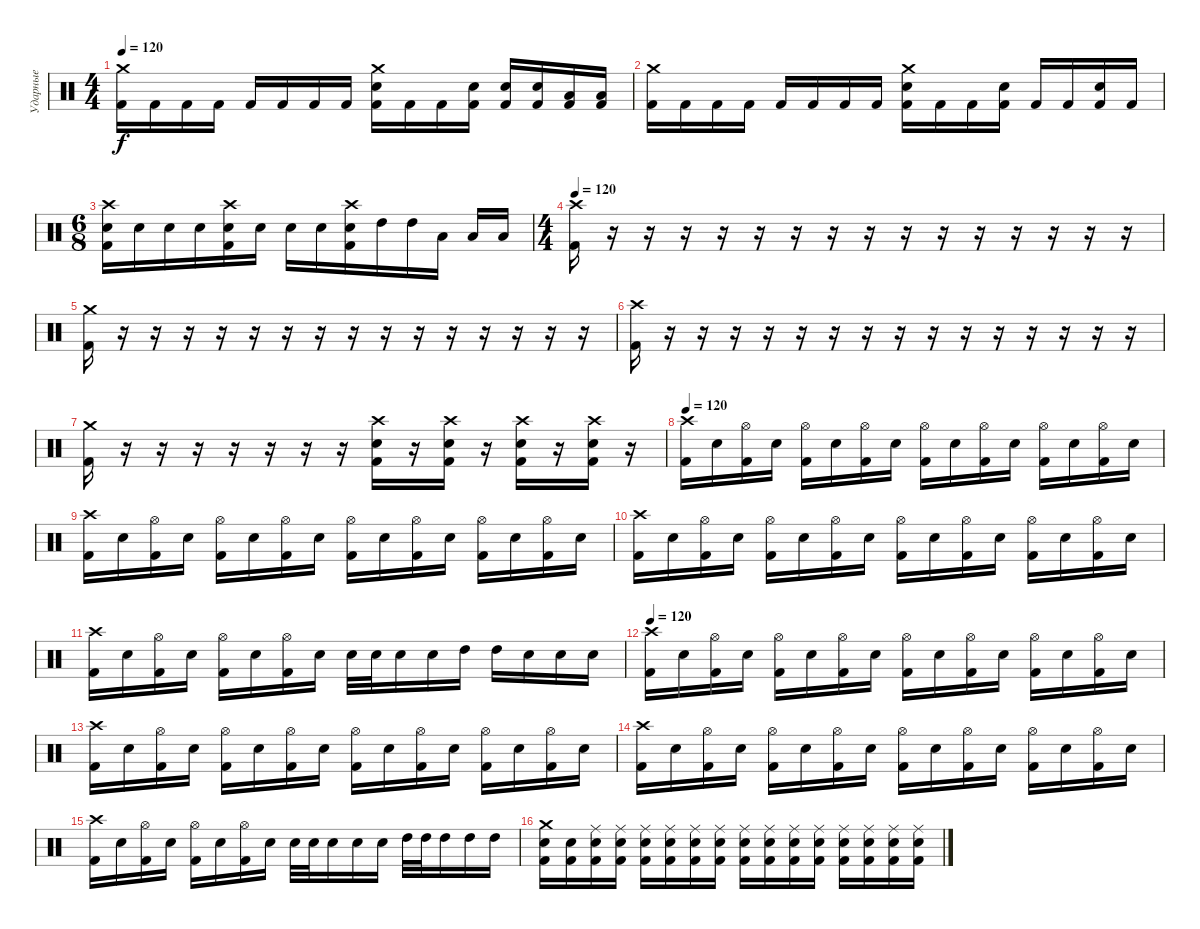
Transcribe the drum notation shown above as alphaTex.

\track ("Ударные" "Ударные") {instrument percussion}
\staff {score}
\articulation defaults
\ts (4 4)
\tempo 120
\clef neutral
\ks c
("Crash medium (hit)" "Kick (hit) 2").16{dy f} "Kick (hit) 2".16 "Kick (hit) 2".16 "Kick (hit) 2".16 "Kick (hit) 2".16 "Kick (hit) 2".16 "Kick (hit) 2".16 "Kick (hit) 2".16 ("Crash medium (hit)" "Electric Snare (hit)" "Kick (hit) 2").16 "Kick (hit) 2".16 "Kick (hit) 2".16 ("Electric Snare (hit)" "Kick (hit) 2").16 ("Electric Snare (hit)" "Kick (hit) 2").16 ("Electric Snare (hit)" "Kick (hit) 2").16 ("Low Tom (hit)" "Kick (hit) 2").16 ("Low Tom (hit)" "Kick (hit) 2").16 |
("Crash medium (hit)" "Kick (hit) 2").16 "Kick (hit) 2".16 "Kick (hit) 2".16 "Kick (hit) 2".16 "Kick (hit) 2".16 "Kick (hit) 2".16 "Kick (hit) 2".16 "Kick (hit) 2".16 ("Crash medium (hit)" "Electric Snare (hit)" "Kick (hit) 2").16 "Kick (hit) 2".16 "Kick (hit) 2".16 ("Electric Snare (hit)" "Kick (hit) 2").16 "Kick (hit) 2".16 "Kick (hit) 2".16 ("Electric Snare (hit)" "Kick (hit) 2").16 "Kick (hit) 2".16 |
\ts (6 8)
("Crash high (hit)" "Electric Snare (hit)" "Kick (hit) 2").16 "Electric Snare (hit)".16 "Electric Snare (hit)".16 "Electric Snare (hit)".16 ("Crash high (hit)" "Electric Snare (hit)" "Kick (hit) 2").16 "Electric Snare (hit)".16 "Electric Snare (hit)".16 "Electric Snare (hit)".16 ("Crash high (hit)" "Electric Snare (hit)" "Kick (hit) 2").16 "High Tom (hit)".16 "High Tom (hit)".16 "Low Tom (hit)".16 "Low Tom (hit)".16 "Low Tom (hit)".16 |
\ts (4 4)
\tempo 120
("Crash high (hit)" "Kick (hit) 2").16 r.16 r.16 r.16 r.16 r.16 r.16 r.16 r.16 r.16 r.16 r.16 r.16 r.16 r.16 r.16 |
("Crash medium (hit)" "Kick (hit) 2").16 r.16 r.16 r.16 r.16 r.16 r.16 r.16 r.16 r.16 r.16 r.16 r.16 r.16 r.16 r.16 |
("Crash high (hit)" "Kick (hit) 2").16 r.16 r.16 r.16 r.16 r.16 r.16 r.16 r.16 r.16 r.16 r.16 r.16 r.16 r.16 r.16 |
("Crash medium (hit)" "Kick (hit) 2").16 r.16 r.16 r.16 r.16 r.16 r.16 r.16 ("Crash high (hit)" "Electric Snare (hit)" "Kick (hit) 2").16 r.16 ("Crash high (hit)" "Electric Snare (hit)" "Kick (hit) 2").16 r.16 ("Crash high (hit)" "Electric Snare (hit)" "Kick (hit) 2").16 r.16 ("Crash high (hit)" "Electric Snare (hit)" "Kick (hit) 2").16 r.16 |
\tempo 120
("Crash high (hit)" "Kick (hit) 2").16 "Electric Snare (hit)".16 ("Hi-Hat (open)" "Kick (hit) 2").16 "Electric Snare (hit)".16 ("Hi-Hat (open)" "Kick (hit) 2").16 "Electric Snare (hit)".16 ("Hi-Hat (open)" "Kick (hit) 2").16 "Electric Snare (hit)".16 ("Hi-Hat (open)" "Kick (hit) 2").16 "Electric Snare (hit)".16 ("Hi-Hat (open)" "Kick (hit) 2").16 "Electric Snare (hit)".16 ("Hi-Hat (open)" "Kick (hit) 2").16 "Electric Snare (hit)".16 ("Hi-Hat (open)" "Kick (hit) 2").16 "Electric Snare (hit)".16 |
("Crash high (hit)" "Kick (hit) 2").16 "Electric Snare (hit)".16 ("Hi-Hat (open)" "Kick (hit) 2").16 "Electric Snare (hit)".16 ("Hi-Hat (open)" "Kick (hit) 2").16 "Electric Snare (hit)".16 ("Hi-Hat (open)" "Kick (hit) 2").16 "Electric Snare (hit)".16 ("Hi-Hat (open)" "Kick (hit) 2").16 "Electric Snare (hit)".16 ("Hi-Hat (open)" "Kick (hit) 2").16 "Electric Snare (hit)".16 ("Hi-Hat (open)" "Kick (hit) 2").16 "Electric Snare (hit)".16 ("Hi-Hat (open)" "Kick (hit) 2").16 "Electric Snare (hit)".16 |
("Crash high (hit)" "Kick (hit) 2").16 "Electric Snare (hit)".16 ("Hi-Hat (open)" "Kick (hit) 2").16 "Electric Snare (hit)".16 ("Hi-Hat (open)" "Kick (hit) 2").16 "Electric Snare (hit)".16 ("Hi-Hat (open)" "Kick (hit) 2").16 "Electric Snare (hit)".16 ("Hi-Hat (open)" "Kick (hit) 2").16 "Electric Snare (hit)".16 ("Hi-Hat (open)" "Kick (hit) 2").16 "Electric Snare (hit)".16 ("Hi-Hat (open)" "Kick (hit) 2").16 "Electric Snare (hit)".16 ("Hi-Hat (open)" "Kick (hit) 2").16 "Electric Snare (hit)".16 |
("Crash high (hit)" "Kick (hit) 2").16 "Electric Snare (hit)".16 ("Hi-Hat (open)" "Kick (hit) 2").16 "Electric Snare (hit)".16 ("Hi-Hat (open)" "Kick (hit) 2").16 "Electric Snare (hit)".16 ("Hi-Hat (open)" "Kick (hit) 2").16 "Electric Snare (hit)".16 "Electric Snare (hit)".32 "Electric Snare (hit)".32 "Electric Snare (hit)".16 "Electric Snare (hit)".16 "High Tom (hit)".16 "High Tom (hit)".16 "Electric Snare (hit)".16 "Electric Snare (hit)".16 "Electric Snare (hit)".16 |
\tempo 120
("Crash high (hit)" "Kick (hit) 2").16 "Electric Snare (hit)".16 ("Hi-Hat (open)" "Kick (hit) 2").16 "Electric Snare (hit)".16 ("Hi-Hat (open)" "Kick (hit) 2").16 "Electric Snare (hit)".16 ("Hi-Hat (open)" "Kick (hit) 2").16 "Electric Snare (hit)".16 ("Hi-Hat (open)" "Kick (hit) 2").16 "Electric Snare (hit)".16 ("Hi-Hat (open)" "Kick (hit) 2").16 "Electric Snare (hit)".16 ("Hi-Hat (open)" "Kick (hit) 2").16 "Electric Snare (hit)".16 ("Hi-Hat (open)" "Kick (hit) 2").16 "Electric Snare (hit)".16 |
("Crash high (hit)" "Kick (hit) 2").16 "Electric Snare (hit)".16 ("Hi-Hat (open)" "Kick (hit) 2").16 "Electric Snare (hit)".16 ("Hi-Hat (open)" "Kick (hit) 2").16 "Electric Snare (hit)".16 ("Hi-Hat (open)" "Kick (hit) 2").16 "Electric Snare (hit)".16 ("Hi-Hat (open)" "Kick (hit) 2").16 "Electric Snare (hit)".16 ("Hi-Hat (open)" "Kick (hit) 2").16 "Electric Snare (hit)".16 ("Hi-Hat (open)" "Kick (hit) 2").16 "Electric Snare (hit)".16 ("Hi-Hat (open)" "Kick (hit) 2").16 "Electric Snare (hit)".16 |
("Crash high (hit)" "Kick (hit) 2").16 "Electric Snare (hit)".16 ("Hi-Hat (open)" "Kick (hit) 2").16 "Electric Snare (hit)".16 ("Hi-Hat (open)" "Kick (hit) 2").16 "Electric Snare (hit)".16 ("Hi-Hat (open)" "Kick (hit) 2").16 "Electric Snare (hit)".16 ("Hi-Hat (open)" "Kick (hit) 2").16 "Electric Snare (hit)".16 ("Hi-Hat (open)" "Kick (hit) 2").16 "Electric Snare (hit)".16 ("Hi-Hat (open)" "Kick (hit) 2").16 "Electric Snare (hit)".16 ("Hi-Hat (open)" "Kick (hit) 2").16 "Electric Snare (hit)".16 |
("Crash high (hit)" "Kick (hit) 2").16 "Electric Snare (hit)".16 ("Hi-Hat (open)" "Kick (hit) 2").16 "Electric Snare (hit)".16 ("Hi-Hat (open)" "Kick (hit) 2").16 "Electric Snare (hit)".16 ("Hi-Hat (open)" "Kick (hit) 2").16 "Electric Snare (hit)".16 "Electric Snare (hit)".32 "Electric Snare (hit)".32 "Electric Snare (hit)".16 "Electric Snare (hit)".16 "Electric Snare (hit)".16 "High Tom (hit)".32 "High Tom (hit)".32 "High Tom (hit)".16 "High Tom (hit)".16 "High Tom (hit)".16 |
("Crash medium (hit)" "Electric Snare (hit)" "Kick (hit) 2").16 ("Electric Snare (hit)" "Kick (hit) 2").16 ("Ride (middle)" "Electric Snare (hit)" "Kick (hit) 2").16 ("Ride (middle)" "Electric Snare (hit)" "Kick (hit) 2").16 ("Ride (middle)" "Electric Snare (hit)" "Kick (hit) 2").16 ("Ride (middle)" "Electric Snare (hit)" "Kick (hit) 2").16 ("Ride (middle)" "Electric Snare (hit)" "Kick (hit) 2").16 ("Ride (middle)" "Electric Snare (hit)" "Kick (hit) 2").16 ("Ride (middle)" "Electric Snare (hit)" "Kick (hit) 2").16 ("Ride (middle)" "Electric Snare (hit)" "Kick (hit) 2").16 ("Ride (middle)" "Electric Snare (hit)" "Kick (hit) 2").16 ("Ride (middle)" "Electric Snare (hit)" "Kick (hit) 2").16 ("Ride (middle)" "Electric Snare (hit)" "Kick (hit) 2").16 ("Ride (middle)" "Electric Snare (hit)" "Kick (hit) 2").16 ("Ride (middle)" "Electric Snare (hit)" "Kick (hit) 2").16 ("Ride (middle)" "Electric Snare (hit)" "Kick (hit) 2").16
